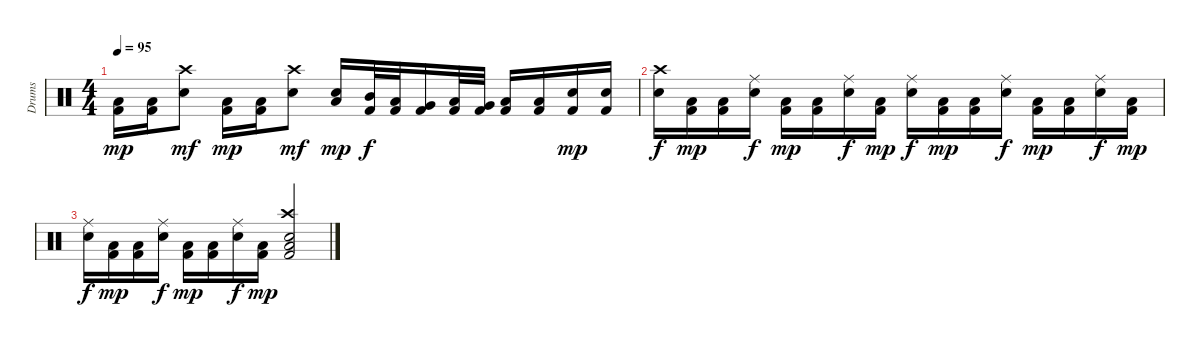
\track ("Drums" "Drums") {instrument percussion}
\staff {score}
\articulation defaults
\ts (4 4)
\tempo 95
\clef neutral
\ks c
("Kick (hit) 2" "Low Floor Tom (hit)").16{dy mp} ("Kick (hit) 2" "Low Floor Tom (hit)").16 ("Crash high (hit)" "Snare (hit) 2").8{dy mf} ("Kick (hit) 2" "Low Floor Tom (hit)").16{dy mp} ("Kick (hit) 2" "Low Floor Tom (hit)").16 ("Crash high (hit)" "Snare (hit) 2").8{dy mf} ("Snare (hit) 2" "Low Floor Tom (hit)").16{dy mp} ("Mid Tom (hit)" "Kick (hit) 2").32{dy f} ("Low Tom (hit)" "Kick (hit) 2").32 ("Very Low Tom (hit)" "Kick (hit) 2").16 ("Low Tom (hit)" "Kick (hit) 2").32 ("Very Low Tom (hit)" "Kick (hit) 2").32 ("Low Floor Tom (hit)" "Kick (hit) 2").16 ("Kick (hit) 2" "Low Floor Tom (hit)").16 ("Snare (hit) 2" "Kick (hit) 2").16{dy mp} ("Snare (hit) 2" "Kick (hit) 2").16 |
("Crash high (hit)" "Snare (hit) 2").16{dy f} ("Kick (hit) 2" "Low Floor Tom (hit)").16{dy mp} ("Kick (hit) 2" "Low Floor Tom (hit)").16 ("Ride (middle)" "Snare (hit) 2").16{dy f} ("Kick (hit) 2" "Low Floor Tom (hit)").16{dy mp} ("Kick (hit) 2" "Low Floor Tom (hit)").16 ("Ride (middle)" "Snare (hit) 2").16{dy f} ("Kick (hit) 2" "Low Floor Tom (hit)").16{dy mp} ("Ride (middle)" "Snare (hit) 2").16{dy f} ("Kick (hit) 2" "Low Floor Tom (hit)").16{dy mp} ("Kick (hit) 2" "Low Floor Tom (hit)").16 ("Ride (middle)" "Snare (hit) 2").16{dy f} ("Kick (hit) 2" "Low Floor Tom (hit)").16{dy mp} ("Kick (hit) 2" "Low Floor Tom (hit)").16 ("Ride (middle)" "Snare (hit) 2").16{dy f} ("Kick (hit) 2" "Low Floor Tom (hit)").16{dy mp} |
("Ride (middle)" "Snare (hit) 2").16{dy f} ("Kick (hit) 2" "Low Floor Tom (hit)").16{dy mp} ("Kick (hit) 2" "Low Floor Tom (hit)").16 ("Ride (middle)" "Snare (hit) 2").16{dy f} ("Kick (hit) 2" "Low Floor Tom (hit)").16{dy mp} ("Kick (hit) 2" "Low Floor Tom (hit)").16 ("Ride (middle)" "Snare (hit) 2").16{dy f} ("Kick (hit) 2" "Low Floor Tom (hit)").16{dy mp} ("Crash high (hit)" "Snare (hit) 2" "Kick (hit) 2" "Low Floor Tom (hit)").2
